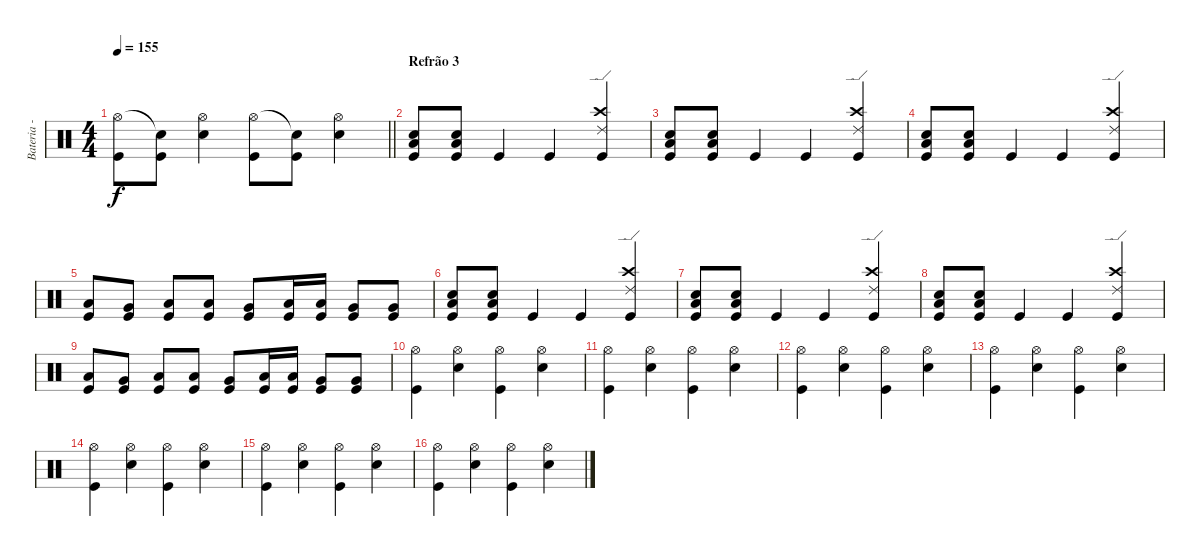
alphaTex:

\track ("Bateria - Craig Nunumacher" "Bateria - ") {instrument percussion}
\staff {score}
\articulation defaults
\ts (4 4)
\tempo 155
\clef neutral
\barLineRight lightlight
\ks c
("Hi-Hat (open)" "Kick (hit)").8{dy f} ("Snare (hit)"{t} "Kick (hit)").8 ("Hi-Hat (open)" "Electric Snare (hit)").4 ("Hi-Hat (open)" "Kick (hit)").8 ("Snare (hit)"{t} "Kick (hit)").8 ("Hi-Hat (open)" "Electric Snare (hit)").4 |
\section ("" "Refrão 3")
("Electric Snare (hit)" "Low Floor Tom (hit)" "Kick (hit)").8 ("Electric Snare (hit)" "Low Floor Tom (hit)" "Kick (hit)").8 "Kick (hit)".4 "Kick (hit)".4 ("Crash high (hit)" "Ride (edge) 2" "Kick (hit)").4 |
("Electric Snare (hit)" "Low Floor Tom (hit)" "Kick (hit)").8 ("Electric Snare (hit)" "Low Floor Tom (hit)" "Kick (hit)").8 "Kick (hit)".4 "Kick (hit)".4 ("Crash high (hit)" "Ride (edge) 2" "Kick (hit)").4 |
("Electric Snare (hit)" "Low Floor Tom (hit)" "Kick (hit)").8 ("Electric Snare (hit)" "Low Floor Tom (hit)" "Kick (hit)").8 "Kick (hit)".4 "Kick (hit)".4 ("Crash high (hit)" "Ride (edge) 2" "Kick (hit)").4 |
("Low Tom (hit)" "Kick (hit)").8 ("Very Low Tom (hit)" "Kick (hit)").8 ("Low Floor Tom (hit)" "Kick (hit)").8 ("Low Tom (hit)" "Kick (hit)").8 ("Very Low Tom (hit)" "Kick (hit)").8 ("Low Floor Tom (hit)" "Kick (hit)").16 ("Low Floor Tom (hit)" "Kick (hit)").16 ("Very Low Tom (hit)" "Kick (hit)").8 ("Very Low Tom (hit)" "Kick (hit)").8 |
("Electric Snare (hit)" "Low Floor Tom (hit)" "Kick (hit)").8 ("Electric Snare (hit)" "Low Floor Tom (hit)" "Kick (hit)").8 "Kick (hit)".4 "Kick (hit)".4 ("Crash high (hit)" "Ride (edge) 2" "Kick (hit)").4 |
("Electric Snare (hit)" "Low Floor Tom (hit)" "Kick (hit)").8 ("Electric Snare (hit)" "Low Floor Tom (hit)" "Kick (hit)").8 "Kick (hit)".4 "Kick (hit)".4 ("Crash high (hit)" "Ride (edge) 2" "Kick (hit)").4 |
("Electric Snare (hit)" "Low Floor Tom (hit)" "Kick (hit)").8 ("Electric Snare (hit)" "Low Floor Tom (hit)" "Kick (hit)").8 "Kick (hit)".4 "Kick (hit)".4 ("Crash high (hit)" "Ride (edge) 2" "Kick (hit)").4 |
("Low Tom (hit)" "Kick (hit)").8 ("Very Low Tom (hit)" "Kick (hit)").8 ("Low Floor Tom (hit)" "Kick (hit)").8 ("Low Tom (hit)" "Kick (hit)").8 ("Very Low Tom (hit)" "Kick (hit)").8 ("Low Floor Tom (hit)" "Kick (hit)").16 ("Low Floor Tom (hit)" "Kick (hit)").16 ("Very Low Tom (hit)" "Kick (hit)").8 ("Very Low Tom (hit)" "Kick (hit)").8 |
("Hi-Hat (open)" "Kick (hit)").4 ("Hi-Hat (open)" "Electric Snare (hit)").4 ("Hi-Hat (open)" "Kick (hit)").4 ("Hi-Hat (open)" "Electric Snare (hit)").4 |
("Hi-Hat (open)" "Kick (hit)").4 ("Hi-Hat (open)" "Electric Snare (hit)").4 ("Hi-Hat (open)" "Kick (hit)").4 ("Hi-Hat (open)" "Electric Snare (hit)").4 |
("Hi-Hat (open)" "Kick (hit)").4 ("Hi-Hat (open)" "Electric Snare (hit)").4 ("Hi-Hat (open)" "Kick (hit)").4 ("Hi-Hat (open)" "Electric Snare (hit)").4 |
("Hi-Hat (open)" "Kick (hit)").4 ("Hi-Hat (open)" "Electric Snare (hit)").4 ("Hi-Hat (open)" "Kick (hit)").4 ("Hi-Hat (open)" "Electric Snare (hit)").4 |
("Hi-Hat (open)" "Kick (hit)").4 ("Hi-Hat (open)" "Electric Snare (hit)").4 ("Hi-Hat (open)" "Kick (hit)").4 ("Hi-Hat (open)" "Electric Snare (hit)").4 |
("Hi-Hat (open)" "Kick (hit)").4 ("Hi-Hat (open)" "Electric Snare (hit)").4 ("Hi-Hat (open)" "Kick (hit)").4 ("Hi-Hat (open)" "Electric Snare (hit)").4 |
("Hi-Hat (open)" "Kick (hit)").4 ("Hi-Hat (open)" "Electric Snare (hit)").4 ("Hi-Hat (open)" "Kick (hit)").4 ("Hi-Hat (open)" "Electric Snare (hit)").4
